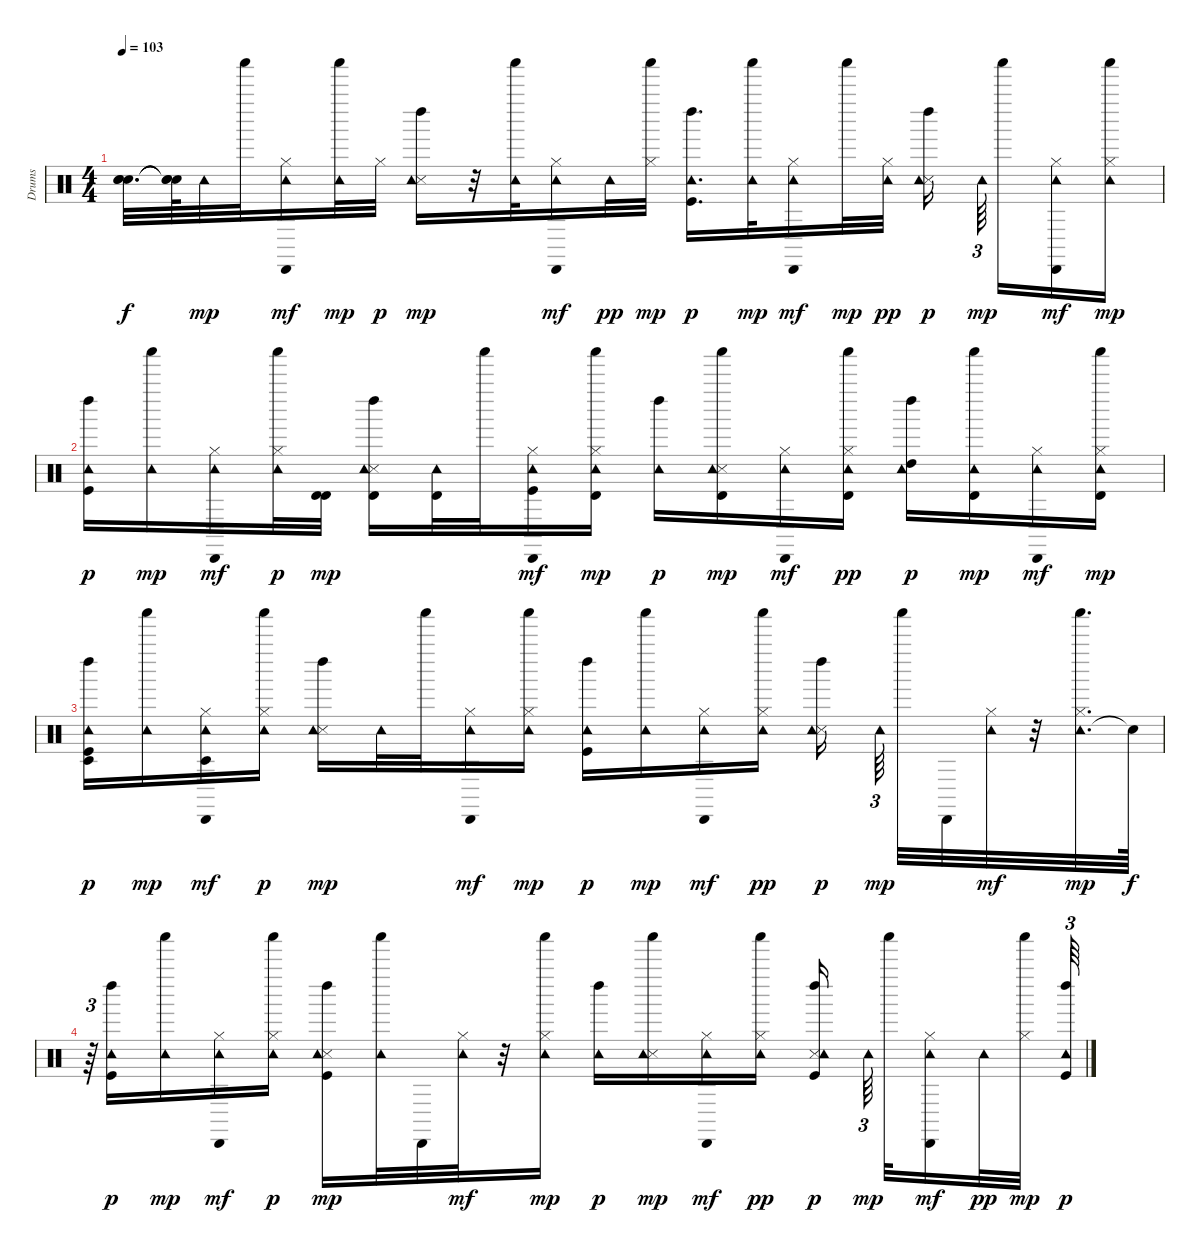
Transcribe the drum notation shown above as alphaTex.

\track ("Drums" "Drums") {instrument percussion}
\staff {score}
\articulation defaults
\ts (4 4)
\tempo 103
\clef neutral
\ks c
("Snare (hit)"{t} "Snare (hit)"{t} "Snare (hit)"{t}).32{d dy f} ("Snare (hit)"{t} "Snare (hit)"{t} "Snare (hit)"{t}).64 "Tambourine (hit)".32{dy mp} "Shaker (hit)".32 ("Cabasa (hit)" "Hi-Hat (closed)" "Tambourine (hit)").16{dy mf} ("Tambourine (hit)" "Shaker (hit)").32{dy mp} "Hi-Hat (closed)".32{dy p} ("Left Maraca (hit)" "Snare (side stick) 3" "Tambourine (hit)").16{dy mp} r.32 ("Tambourine (hit)" "Shaker (hit)").32 ("Cabasa (hit)" "Hi-Hat (closed)" "Tambourine (hit)").16{dy mf} "Tambourine (hit)".32{dy pp} ("Hi-Hat (closed)" "Shaker (hit)").32{dy mp} ("Left Maraca (hit)" "Kick (hit)" "Tambourine (hit)").16{d dy p} ("Tambourine (hit)" "Shaker (hit)").32{dy mp} ("Cabasa (hit)" "Hi-Hat (closed)" "Tambourine (hit)").16{dy mf} "Shaker (hit)".32{dy mp} ("Hi-Hat (closed)" "Tambourine (hit)").32{dy pp} ("Left Maraca (hit)" "Snare (side stick) 3" "Tambourine (hit)").16{dy p beam splitsecondary} "Tambourine (hit)".64{tu (3 2) dy mp beam splitsecondary} "Shaker (hit)".16 ("Cabasa (hit)" "Hi-Hat (closed)" "Tambourine (hit)").16{dy mf} ("Tambourine (hit)" "Hi-Hat (closed)" "Shaker (hit)").16{dy mp} |
("Left Maraca (hit)" "Kick (hit)" "Tambourine (hit)").16{dy p} ("Tambourine (hit)" "Shaker (hit)").16{dy mp} ("Cabasa (hit)" "Hi-Hat (closed)" "Tambourine (hit)").16{dy mf} ("Tambourine (hit)" "Shaker (hit)" "Hi-Hat (closed)").32{dy p} ("Timbale high (hit)" "Timbale high (hit)").32{dy mp} ("Left Maraca (hit)" "Timbale high (hit)" "Snare (side stick) 3" "Tambourine (hit)").16 ("Timbale high (hit)" "Tambourine (hit)").32 "Shaker (hit)".32 ("Cabasa (hit)" "Kick (hit)" "Hi-Hat (closed)" "Tambourine (hit)").16{dy mf} ("Tambourine (hit)" "Timbale high (hit)" "Hi-Hat (closed)" "Shaker (hit)").16{dy mp} ("Left Maraca (hit)" "Tambourine (hit)").16{dy p} ("Timbale high (hit)" "Snare (side stick) 3" "Tambourine (hit)" "Shaker (hit)").16{dy mp} ("Cabasa (hit)" "Hi-Hat (closed)" "Tambourine (hit)").16{dy mf} ("Shaker (hit)" "Hi-Hat (closed)" "Tambourine (hit)" "Timbale high (hit)").16{dy pp} ("Left Maraca (hit)" "High Tom (hit)" "Tambourine (hit)").16{dy p} ("Tambourine (hit)" "Timbale high (hit)" "Shaker (hit)").16{dy mp} ("Cabasa (hit)" "Hi-Hat (closed)" "Tambourine (hit)").16{dy mf} ("Tambourine (hit)" "Timbale high (hit)" "Hi-Hat (closed)" "Shaker (hit)").16{dy mp} |
("Left Maraca (hit)" "Timbale low (hit)" "Kick (hit)" "Tambourine (hit)").16{dy p} ("Tambourine (hit)" "Shaker (hit)").16{dy mp} ("Cabasa (hit)" "Timbale low (hit)" "Hi-Hat (closed)" "Tambourine (hit)").16{dy mf} ("Tambourine (hit)" "Shaker (hit)" "Hi-Hat (closed)").16{dy p} ("Left Maraca (hit)" "Snare (side stick) 3" "Tambourine (hit)").16{dy mp} "Tambourine (hit)".32 "Shaker (hit)".32 ("Cabasa (hit)" "Hi-Hat (closed)" "Tambourine (hit)").16{dy mf} ("Tambourine (hit)" "Hi-Hat (closed)" "Shaker (hit)").16{dy mp} ("Left Maraca (hit)" "Kick (hit)" "Tambourine (hit)").16{dy p} ("Tambourine (hit)" "Shaker (hit)").16{dy mp} ("Cabasa (hit)" "Hi-Hat (closed)" "Tambourine (hit)").16{dy mf} ("Shaker (hit)" "Hi-Hat (closed)" "Tambourine (hit)").16{dy pp} ("Left Maraca (hit)" "Snare (side stick) 3" "Tambourine (hit)").16{dy p beam splitsecondary} "Tambourine (hit)".64{tu (3 2) dy mp beam splitsecondary} "Shaker (hit)".32 "Cabasa (hit)".32 ("Hi-Hat (closed)" "Tambourine (hit)").32{dy mf} r.32 ("Tambourine (hit)" "Hi-Hat (closed)" "Shaker (hit)").32{d dy mp} "Snare (hit)"{t}.64{dy f} |
r.64{tu (3 2)} ("Left Maraca (hit)" "Kick (hit)" "Tambourine (hit)").16{dy p} ("Tambourine (hit)" "Shaker (hit)").16{dy mp} ("Cabasa (hit)" "Hi-Hat (closed)" "Tambourine (hit)").16{dy mf} ("Tambourine (hit)" "Shaker (hit)" "Hi-Hat (closed)").16{dy p} ("Left Maraca (hit)" "Kick (hit)" "Snare (side stick) 3" "Tambourine (hit)").16{dy mp} ("Tambourine (hit)" "Shaker (hit)").32 "Cabasa (hit)".32 ("Hi-Hat (closed)" "Tambourine (hit)").32{dy mf} r.32 ("Tambourine (hit)" "Hi-Hat (closed)" "Shaker (hit)").16{dy mp} ("Left Maraca (hit)" "Tambourine (hit)").16{dy p} ("Snare (side stick) 3" "Tambourine (hit)" "Shaker (hit)").16{dy mp} ("Cabasa (hit)" "Hi-Hat (closed)" "Tambourine (hit)").16{dy mf} ("Shaker (hit)" "Hi-Hat (closed)" "Tambourine (hit)").16{dy pp} ("Left Maraca (hit)" "Kick (hit)" "Snare (side stick) 3" "Tambourine (hit)").16{dy p beam splitsecondary} "Tambourine (hit)".64{tu (3 2) dy mp beam splitsecondary} "Shaker (hit)".32 ("Cabasa (hit)" "Hi-Hat (closed)" "Tambourine (hit)").16{dy mf} "Tambourine (hit)".32{dy pp} ("Hi-Hat (closed)" "Shaker (hit)").32{dy mp beam splitsecondary} ("Left Maraca (hit)" "Kick (hit)" "Tambourine (hit)").64{tu (3 2) dy p}
